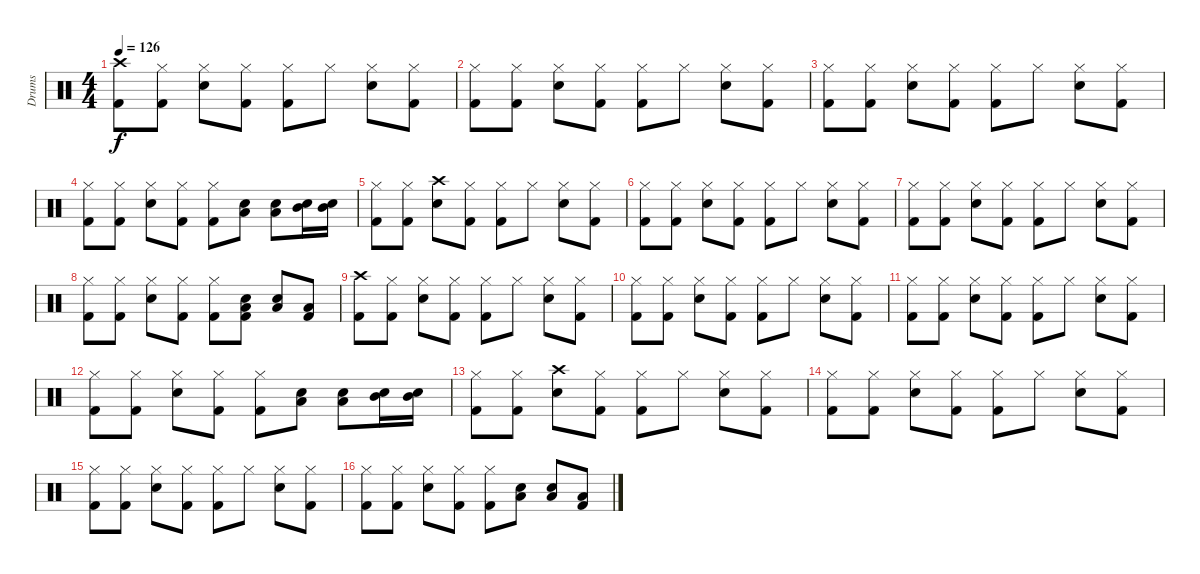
\track ("Drums" "Drums") {instrument percussion}
\staff {score}
\articulation defaults
\ts (4 4)
\tempo 126
\clef neutral
\ks c
("Crash high (hit)" "Kick (hit) 2").8{dy f} ("Hi-Hat (closed)" "Kick (hit) 2").8 ("Hi-Hat (closed)" "Snare (hit) 2").8 ("Hi-Hat (closed)" "Kick (hit) 2").8 ("Hi-Hat (closed)" "Kick (hit) 2").8 "Hi-Hat (closed)".8 ("Hi-Hat (closed)" "Snare (hit) 2").8 ("Hi-Hat (closed)" "Kick (hit) 2").8 |
("Hi-Hat (closed)" "Kick (hit) 2").8 ("Hi-Hat (closed)" "Kick (hit) 2").8 ("Hi-Hat (closed)" "Snare (hit) 2").8 ("Hi-Hat (closed)" "Kick (hit) 2").8 ("Hi-Hat (closed)" "Kick (hit) 2").8 "Hi-Hat (closed)".8 ("Hi-Hat (closed)" "Snare (hit) 2").8 ("Hi-Hat (closed)" "Kick (hit) 2").8 |
("Hi-Hat (closed)" "Kick (hit) 2").8 ("Hi-Hat (closed)" "Kick (hit) 2").8 ("Hi-Hat (closed)" "Snare (hit) 2").8 ("Hi-Hat (closed)" "Kick (hit) 2").8 ("Hi-Hat (closed)" "Kick (hit) 2").8 "Hi-Hat (closed)".8 ("Hi-Hat (closed)" "Snare (hit) 2").8 ("Hi-Hat (closed)" "Kick (hit) 2").8 |
("Hi-Hat (closed)" "Kick (hit) 2").8 ("Hi-Hat (closed)" "Kick (hit) 2").8 ("Hi-Hat (closed)" "Snare (hit) 2").8 ("Hi-Hat (closed)" "Kick (hit) 2").8 ("Hi-Hat (closed)" "Kick (hit) 2").8 ("Low Tom (hit)" "Snare (hit) 2").8 ("Low Tom (hit)" "Snare (hit) 2").8 ("Mid Tom (hit)" "Snare (hit) 2").16 ("Mid Tom (hit)" "Snare (hit) 2").16 |
("Hi-Hat (closed)" "Kick (hit) 2").8 ("Hi-Hat (closed)" "Kick (hit) 2").8 ("Crash high (hit)" "Snare (hit) 2").8 ("Hi-Hat (closed)" "Kick (hit) 2").8 ("Hi-Hat (closed)" "Kick (hit) 2").8 "Hi-Hat (closed)".8 ("Hi-Hat (closed)" "Snare (hit) 2").8 ("Hi-Hat (closed)" "Kick (hit) 2").8 |
("Hi-Hat (closed)" "Kick (hit) 2").8 ("Hi-Hat (closed)" "Kick (hit) 2").8 ("Hi-Hat (closed)" "Snare (hit) 2").8 ("Hi-Hat (closed)" "Kick (hit) 2").8 ("Hi-Hat (closed)" "Kick (hit) 2").8 "Hi-Hat (closed)".8 ("Hi-Hat (closed)" "Snare (hit) 2").8 ("Hi-Hat (closed)" "Kick (hit) 2").8 |
("Hi-Hat (closed)" "Kick (hit) 2").8 ("Hi-Hat (closed)" "Kick (hit) 2").8 ("Hi-Hat (closed)" "Snare (hit) 2").8 ("Hi-Hat (closed)" "Kick (hit) 2").8 ("Hi-Hat (closed)" "Kick (hit) 2").8 "Hi-Hat (closed)".8 ("Hi-Hat (closed)" "Snare (hit) 2").8 ("Hi-Hat (closed)" "Kick (hit) 2").8 |
("Hi-Hat (closed)" "Kick (hit) 2").8 ("Hi-Hat (closed)" "Kick (hit) 2").8 ("Hi-Hat (closed)" "Snare (hit) 2").8 ("Hi-Hat (closed)" "Kick (hit) 2").8 ("Hi-Hat (closed)" "Kick (hit) 2").8 ("Low Tom (hit)" "Snare (hit) 2" "Kick (hit) 2").8 ("Low Tom (hit)" "Snare (hit) 2").8 ("Low Tom (hit)" "Kick (hit) 2").8 |
("Crash high (hit)" "Kick (hit) 2").8 ("Hi-Hat (closed)" "Kick (hit) 2").8 ("Hi-Hat (closed)" "Snare (hit) 2").8 ("Hi-Hat (closed)" "Kick (hit) 2").8 ("Hi-Hat (closed)" "Kick (hit) 2").8 "Hi-Hat (closed)".8 ("Hi-Hat (closed)" "Snare (hit) 2").8 ("Hi-Hat (closed)" "Kick (hit) 2").8 |
("Hi-Hat (closed)" "Kick (hit) 2").8 ("Hi-Hat (closed)" "Kick (hit) 2").8 ("Hi-Hat (closed)" "Snare (hit) 2").8 ("Hi-Hat (closed)" "Kick (hit) 2").8 ("Hi-Hat (closed)" "Kick (hit) 2").8 "Hi-Hat (closed)".8 ("Hi-Hat (closed)" "Snare (hit) 2").8 ("Hi-Hat (closed)" "Kick (hit) 2").8 |
("Hi-Hat (closed)" "Kick (hit) 2").8 ("Hi-Hat (closed)" "Kick (hit) 2").8 ("Hi-Hat (closed)" "Snare (hit) 2").8 ("Hi-Hat (closed)" "Kick (hit) 2").8 ("Hi-Hat (closed)" "Kick (hit) 2").8 "Hi-Hat (closed)".8 ("Hi-Hat (closed)" "Snare (hit) 2").8 ("Hi-Hat (closed)" "Kick (hit) 2").8 |
("Hi-Hat (closed)" "Kick (hit) 2").8 ("Hi-Hat (closed)" "Kick (hit) 2").8 ("Hi-Hat (closed)" "Snare (hit) 2").8 ("Hi-Hat (closed)" "Kick (hit) 2").8 ("Hi-Hat (closed)" "Kick (hit) 2").8 ("Low Tom (hit)" "Snare (hit) 2").8 ("Low Tom (hit)" "Snare (hit) 2").8 ("Mid Tom (hit)" "Snare (hit) 2").16 ("Mid Tom (hit)" "Snare (hit) 2").16 |
("Hi-Hat (closed)" "Kick (hit) 2").8 ("Hi-Hat (closed)" "Kick (hit) 2").8 ("Crash high (hit)" "Snare (hit) 2").8 ("Hi-Hat (closed)" "Kick (hit) 2").8 ("Hi-Hat (closed)" "Kick (hit) 2").8 "Hi-Hat (closed)".8 ("Hi-Hat (closed)" "Snare (hit) 2").8 ("Hi-Hat (closed)" "Kick (hit) 2").8 |
("Hi-Hat (closed)" "Kick (hit) 2").8 ("Hi-Hat (closed)" "Kick (hit) 2").8 ("Hi-Hat (closed)" "Snare (hit) 2").8 ("Hi-Hat (closed)" "Kick (hit) 2").8 ("Hi-Hat (closed)" "Kick (hit) 2").8 "Hi-Hat (closed)".8 ("Hi-Hat (closed)" "Snare (hit) 2").8 ("Hi-Hat (closed)" "Kick (hit) 2").8 |
("Hi-Hat (closed)" "Kick (hit) 2").8 ("Hi-Hat (closed)" "Kick (hit) 2").8 ("Hi-Hat (closed)" "Snare (hit) 2").8 ("Hi-Hat (closed)" "Kick (hit) 2").8 ("Hi-Hat (closed)" "Kick (hit) 2").8 "Hi-Hat (closed)".8 ("Hi-Hat (closed)" "Snare (hit) 2").8 ("Hi-Hat (closed)" "Kick (hit) 2").8 |
("Hi-Hat (closed)" "Kick (hit) 2").8 ("Hi-Hat (closed)" "Kick (hit) 2").8 ("Hi-Hat (closed)" "Snare (hit) 2").8 ("Hi-Hat (closed)" "Kick (hit) 2").8 ("Hi-Hat (closed)" "Kick (hit) 2").8 ("Low Tom (hit)" "Snare (hit) 2").8 ("Low Tom (hit)" "Snare (hit) 2").8 ("Low Tom (hit)" "Kick (hit) 2").8
